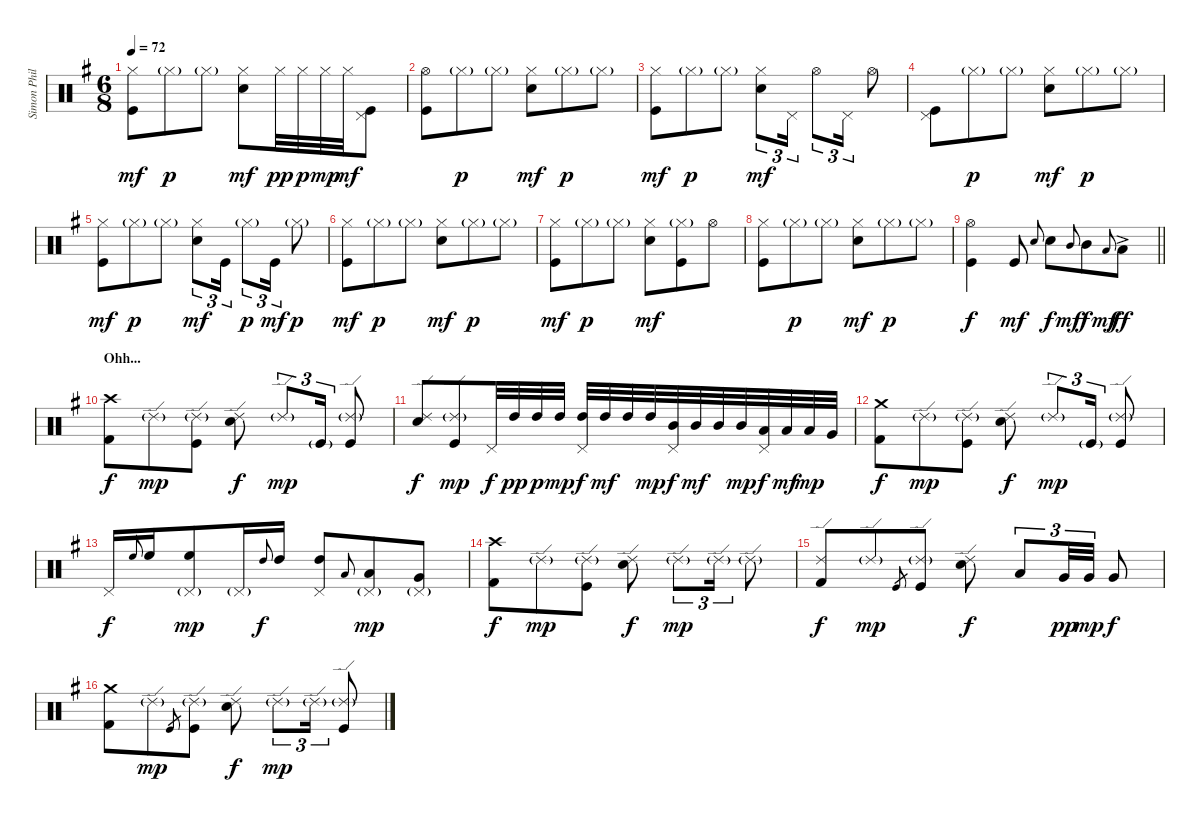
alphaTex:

\track ("Simon Phillips" "Simon Phil") {instrument percussion}
\staff {score}
\articulation defaults
\ts (6 8)
\tempo 72
\clef neutral
\ks eminor
("Hi-Hat (closed)" "Kick (hit)").8{dy mf} "Hi-Hat (closed)"{g}.8{dy p} "Hi-Hat (closed)"{g}.8 ("Hi-Hat (closed)" "Electric Snare (hit)").8{dy mf} "Hi-Hat (closed)".32{dy pp} "Hi-Hat (closed)".32{dy p} "Hi-Hat (closed)".32{dy mp} "Hi-Hat (closed)".32{dy mf} ("Pedal Hi-Hat (hit)" "Kick (hit)").8 |
("Hi-Hat (open)" "Kick (hit)").8 "Hi-Hat (closed)"{g}.8{dy p} "Hi-Hat (closed)"{g}.8 ("Hi-Hat (closed)" "Electric Snare (hit)").8{dy mf} "Hi-Hat (closed)"{g}.8{dy p} "Hi-Hat (closed)"{g}.8 |
("Hi-Hat (closed)" "Kick (hit)").8{dy mf} "Hi-Hat (closed)"{g}.8{dy p} "Hi-Hat (closed)"{g}.8 ("Hi-Hat (closed)" "Electric Snare (hit)").8{tu (3 2) dy mf} "Pedal Hi-Hat (hit)".16{tu (3 2)} "Hi-Hat (open)".8{tu (3 2)} "Pedal Hi-Hat (hit)".16{tu (3 2)} "Hi-Hat (open)".8 |
("Pedal Hi-Hat (hit)" "Kick (hit)").8 "Hi-Hat (closed)"{g}.8{dy p} "Hi-Hat (closed)"{g}.8 ("Hi-Hat (closed)" "Electric Snare (hit)").8{dy mf} "Hi-Hat (closed)"{g}.8{dy p} "Hi-Hat (closed)"{g}.8 |
("Hi-Hat (closed)" "Kick (hit)").8{dy mf} "Hi-Hat (closed)"{g}.8{dy p} "Hi-Hat (closed)"{g}.8 ("Hi-Hat (closed)" "Electric Snare (hit)").8{tu (3 2) dy mf} "Kick (hit)".16{tu (3 2)} "Hi-Hat (closed)"{g}.8{tu (3 2) dy p} "Kick (hit)".16{tu (3 2) dy mf} "Hi-Hat (closed)"{g}.8{dy p} |
("Hi-Hat (closed)" "Kick (hit)").8{dy mf} "Hi-Hat (closed)"{g}.8{dy p} "Hi-Hat (closed)"{g}.8 ("Hi-Hat (closed)" "Electric Snare (hit)").8{dy mf} "Hi-Hat (closed)"{g}.8{dy p} "Hi-Hat (closed)"{g}.8 |
("Hi-Hat (closed)" "Kick (hit)").8{dy mf} "Hi-Hat (closed)"{g}.8{dy p} "Hi-Hat (closed)"{g}.8 ("Hi-Hat (closed)" "Electric Snare (hit)").8{dy mf} ("Hi-Hat (closed)"{g} "Kick (hit)").8 "Hi-Hat (open)".8 |
("Hi-Hat (closed)" "Kick (hit)").8 "Hi-Hat (closed)"{g}.8{dy p} "Hi-Hat (closed)"{g}.8 ("Hi-Hat (closed)" "Electric Snare (hit)").8{dy mf} "Hi-Hat (closed)"{g}.8{dy p} "Hi-Hat (closed)"{g}.8 |
\barLineRight lightlight
("Hi-Hat (open)" "Kick (hit)").4{dy f} "Kick (hit)".8{dy mf} "Electric Snare (hit)".8{gr onbeat} "Electric Snare (hit)".8{dy f} "Mid Tom (hit)".8{gr onbeat dy mf} "Mid Tom (hit)".8{dy f} "Low Tom (hit)".8{gr onbeat dy mf} "Low Tom (hit)"{ac}.8{dy ff} |
\section ("" "Ohh...")
("Crash high (hit)" "Kick (hit) 2").8{dy f} "Ride (edge) 2"{g}.8{dy mp} ("Ride (edge) 2"{g} "Kick (hit)").8 ("Ride (edge) 2" "Electric Snare (hit)").8{dy f} "Ride (edge) 2"{g}.8{tu (3 2) dy mp} "Kick (hit)"{g}.16{tu (3 2)} ("Ride (edge) 2"{g} "Kick (hit)").8 |
("Ride (edge) 2" "Electric Snare (hit)").8{dy f} ("Ride (edge) 2"{g} "Kick (hit)").8{dy mp} "Pedal Hi-Hat (hit)".32{dy f} "High Tom (hit)".32{dy pp} "High Tom (hit)".32{dy p} "High Tom (hit)".32{dy mp} ("Pedal Hi-Hat (hit)" "High Tom (hit)").32{dy f} "High Tom (hit)".32{dy mf} "High Tom (hit)".32 "High Tom (hit)".32{dy mp} ("Pedal Hi-Hat (hit)" "Mid Tom (hit)").32{dy f} "Mid Tom (hit)".32{dy mf} "Mid Tom (hit)".32 "Mid Tom (hit)".32{dy mp} ("Pedal Hi-Hat (hit)" "Low Tom (hit)").32{dy f} "Low Tom (hit)".32{dy mf} "Low Tom (hit)".32{dy mp} "Very Low Tom (hit)".32 |
("Crash medium (hit)" "Kick (hit) 2").8{dy f} "Ride (edge) 2"{g}.8{dy mp} ("Ride (edge) 2"{g} "Kick (hit)").8 ("Ride (edge) 2" "Electric Snare (hit)").8{dy f} "Ride (edge) 2"{g}.8{tu (3 2) dy mp} "Kick (hit)"{g}.16{tu (3 2)} ("Ride (edge) 2"{g} "Kick (hit)").8 |
"Pedal Hi-Hat (hit)".16{dy f} "High Floor Tom (hit)".8{gr onbeat} "High Floor Tom (hit)".16 ("Pedal Hi-Hat (hit)"{g} "High Floor Tom (hit)").8{dy mp} "Pedal Hi-Hat (hit)"{g}.16 "High Tom (hit)".8{gr onbeat dy f} "High Tom (hit)".16 ("Pedal Hi-Hat (hit)" "High Tom (hit)").8 "Low Tom (hit)".8{gr onbeat} ("Pedal Hi-Hat (hit)"{g} "Low Tom (hit)").8{dy mp} ("Pedal Hi-Hat (hit)"{g} "Very Low Tom (hit)").8 |
("Crash high (hit)" "Kick (hit) 2").8{dy f} "Ride (edge) 2"{g}.8{dy mp} ("Ride (edge) 2"{g} "Kick (hit)").8 ("Ride (edge) 2" "Electric Snare (hit)").8{dy f} "Ride (edge) 2"{g}.8{tu (3 2) dy mp} "Ride (edge) 2"{g}.16{tu (3 2)} "Ride (edge) 2"{g}.8 |
("Ride (edge) 2" "Kick (hit) 2").8{dy f} "Ride (edge) 2"{g}.8{dy mp} "Kick (hit)".8{gr} ("Ride (edge) 2"{g} "Kick (hit)").8 ("Ride (edge) 2" "Electric Snare (hit)").8{dy f} "Low Tom (hit)".8{tu (3 2)} "Very Low Tom (hit)".32{tu (3 2) dy pp} "Very Low Tom (hit)".32{tu (3 2) dy mp} "Very Low Tom (hit)".8{dy f} |
("Crash medium (hit)" "Kick (hit) 2").8 "Ride (edge) 2"{g}.8{dy mp} "Kick (hit)".8{gr} ("Ride (edge) 2"{g} "Kick (hit)").8 ("Ride (edge) 2" "Electric Snare (hit)").8{dy f} "Ride (edge) 2"{g}.8{tu (3 2) dy mp} "Ride (edge) 2"{g}.16{tu (3 2)} ("Ride (edge) 2"{g} "Kick (hit)").8
